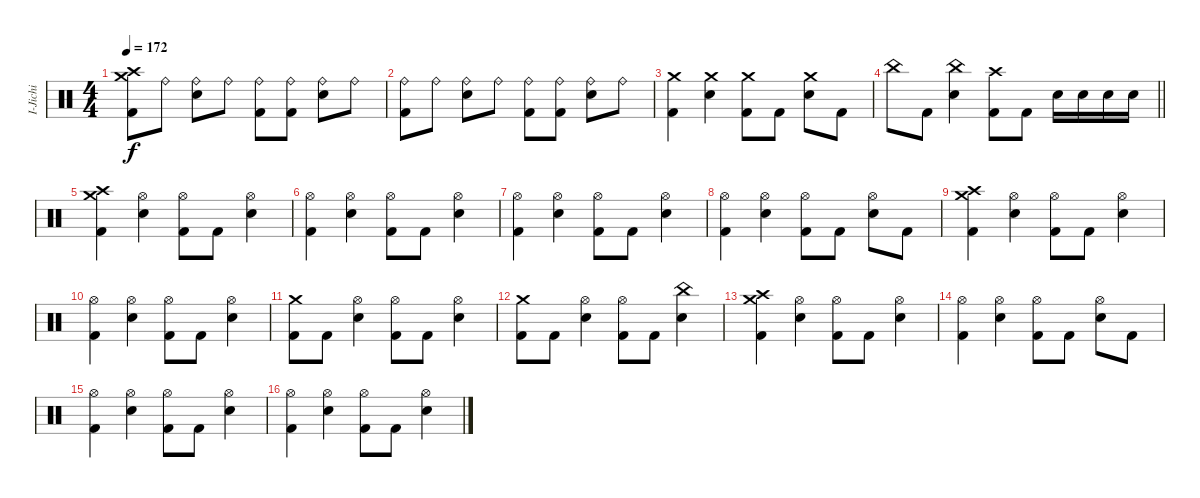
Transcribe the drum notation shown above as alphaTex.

\track ("I-Jichi" "I-Jichi") {instrument percussion}
\staff {score}
\articulation defaults
\ts (4 4)
\tempo 172
\clef neutral
\ks c
("Crash high (hit)" "Crash medium (hit)" "Kick (hit) 2").8{dy f} "Ride (bell)".8 ("Ride (bell)" "Electric Snare (hit)").8 "Ride (bell)".8 ("Ride (bell)" "Kick (hit) 2").8 ("Ride (bell)" "Kick (hit) 2").8 ("Ride (bell)" "Electric Snare (hit)").8 "Ride (bell)".8 |
("Ride (bell)" "Kick (hit) 2").8 "Ride (bell)".8 ("Ride (bell)" "Electric Snare (hit)").8 "Ride (bell)".8 ("Ride (bell)" "Kick (hit) 2").8 ("Ride (bell)" "Kick (hit) 2").8 ("Ride (bell)" "Electric Snare (hit)").8 "Ride (bell)".8 |
("Crash medium (hit)" "Kick (hit) 2").4 ("Crash medium (hit)" "Electric Snare (hit)").4 ("Crash medium (hit)" "Kick (hit) 2").8 "Kick (hit) 2".8 ("Crash medium (hit)" "Electric Snare (hit)").8 "Kick (hit) 2".8 |
\barLineRight lightlight "China (hit)".8 "Kick (hit) 2".8
("China (hit)" "Electric Snare (hit)").4 ("Crash high (hit)" "Kick (hit) 2").8 "Kick (hit) 2".8 "Electric Snare (hit)".16 "Electric Snare (hit)".16 "Electric Snare (hit)".16 "Electric Snare (hit)".16 |
("Crash high (hit)" "Crash medium (hit)" "Kick (hit) 2").4 ("Hi-Hat (open)" "Electric Snare (hit)").4 ("Hi-Hat (open)" "Kick (hit) 2").8 "Kick (hit) 2".8 ("Hi-Hat (open)" "Electric Snare (hit)").4 |
("Hi-Hat (open)" "Kick (hit) 2").4 ("Hi-Hat (open)" "Electric Snare (hit)").4 ("Hi-Hat (open)" "Kick (hit) 2").8 "Kick (hit) 2".8 ("Hi-Hat (open)" "Electric Snare (hit)").4 |
("Hi-Hat (open)" "Kick (hit) 2").4 ("Hi-Hat (open)" "Electric Snare (hit)").4 ("Hi-Hat (open)" "Kick (hit) 2").8 "Kick (hit) 2".8 ("Hi-Hat (open)" "Electric Snare (hit)").4 |
("Hi-Hat (open)" "Kick (hit) 2").4 ("Hi-Hat (open)" "Electric Snare (hit)").4 ("Hi-Hat (open)" "Kick (hit) 2").8 "Kick (hit) 2".8 ("Hi-Hat (open)" "Electric Snare (hit)").8 "Kick (hit) 2".8 |
("Crash high (hit)" "Crash medium (hit)" "Kick (hit) 2").4 ("Hi-Hat (open)" "Electric Snare (hit)").4 ("Hi-Hat (open)" "Kick (hit) 2").8 "Kick (hit) 2".8 ("Hi-Hat (open)" "Electric Snare (hit)").4 |
("Hi-Hat (open)" "Kick (hit) 2").4 ("Hi-Hat (open)" "Electric Snare (hit)").4 ("Hi-Hat (open)" "Kick (hit) 2").8 "Kick (hit) 2".8 ("Hi-Hat (open)" "Electric Snare (hit)").4 |
("Crash medium (hit)" "Kick (hit) 2").8 "Kick (hit) 2".8 ("Hi-Hat (open)" "Electric Snare (hit)").4 ("Hi-Hat (open)" "Kick (hit) 2").8 "Kick (hit) 2".8 ("Hi-Hat (open)" "Electric Snare (hit)").4 |
("Crash medium (hit)" "Kick (hit) 2").8 "Kick (hit) 2".8 ("Hi-Hat (open)" "Electric Snare (hit)").4 ("Hi-Hat (open)" "Kick (hit) 2").8 "Kick (hit) 2".8 ("China (hit)" "Electric Snare (hit)").4 |
("Crash high (hit)" "Crash medium (hit)" "Kick (hit) 2").4 ("Hi-Hat (open)" "Electric Snare (hit)").4 ("Hi-Hat (open)" "Kick (hit) 2").8 "Kick (hit) 2".8 ("Hi-Hat (open)" "Electric Snare (hit)").4 |
("Hi-Hat (open)" "Kick (hit) 2").4 ("Hi-Hat (open)" "Electric Snare (hit)").4 ("Hi-Hat (open)" "Kick (hit) 2").8 "Kick (hit) 2".8 ("Hi-Hat (open)" "Electric Snare (hit)").8 "Kick (hit) 2".8 |
("Hi-Hat (open)" "Kick (hit) 2").4 ("Hi-Hat (open)" "Electric Snare (hit)").4 ("Hi-Hat (open)" "Kick (hit) 2").8 "Kick (hit) 2".8 ("Hi-Hat (open)" "Electric Snare (hit)").4 |
("Hi-Hat (open)" "Kick (hit) 2").4 ("Hi-Hat (open)" "Electric Snare (hit)").4 ("Hi-Hat (open)" "Kick (hit) 2").8 "Kick (hit) 2".8 ("Hi-Hat (open)" "Electric Snare (hit)").4
